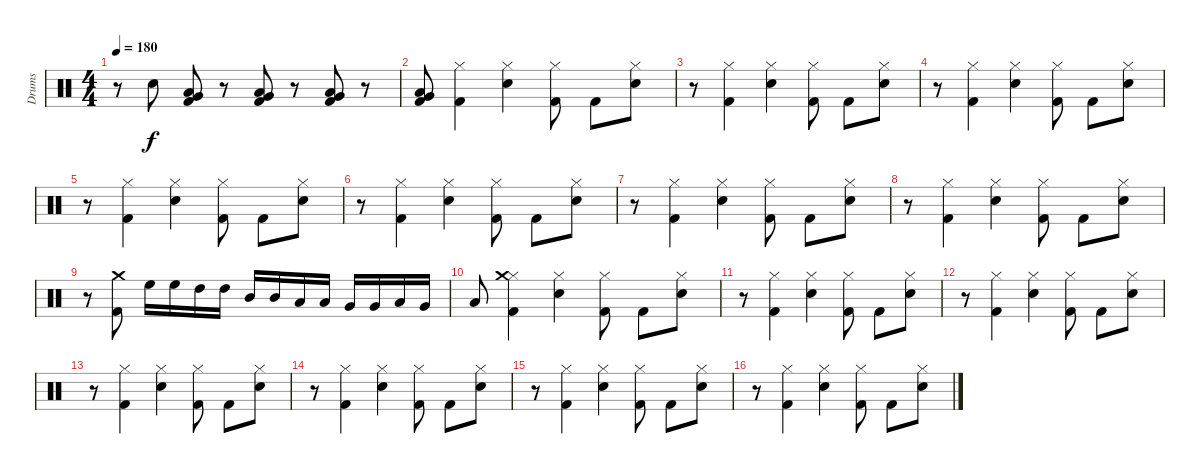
\track ("Drums" "Drums") {instrument percussion}
\staff {score}
\articulation defaults
\ts (4 4)
\tempo 180
\clef neutral
\ks c
r.8{dy f} "Snare (hit) 2".8 ("Very Low Tom (hit)" "Low Floor Tom (hit)" "Kick (hit) 2").8 r.8 ("Very Low Tom (hit)" "Low Floor Tom (hit)" "Kick (hit) 2").8 r.8 ("Very Low Tom (hit)" "Low Floor Tom (hit)" "Kick (hit) 2").8 r.8 |
("Very Low Tom (hit)" "Low Floor Tom (hit)" "Kick (hit) 2").8 ("Hi-Hat (closed)" "Kick (hit) 2").4 ("Hi-Hat (closed)" "Snare (hit) 2").4 ("Hi-Hat (closed)" "Kick (hit) 2").8 "Kick (hit) 2".8 ("Hi-Hat (closed)" "Snare (hit) 2").8 |
r.8 ("Hi-Hat (closed)" "Kick (hit) 2").4 ("Hi-Hat (closed)" "Snare (hit) 2").4 ("Hi-Hat (closed)" "Kick (hit) 2").8 "Kick (hit) 2".8 ("Hi-Hat (closed)" "Snare (hit) 2").8 |
r.8 ("Hi-Hat (closed)" "Kick (hit) 2").4 ("Hi-Hat (closed)" "Snare (hit) 2").4 ("Hi-Hat (closed)" "Kick (hit) 2").8 "Kick (hit) 2".8 ("Hi-Hat (closed)" "Snare (hit) 2").8 |
r.8 ("Hi-Hat (closed)" "Kick (hit) 2").4 ("Hi-Hat (closed)" "Snare (hit) 2").4 ("Hi-Hat (closed)" "Kick (hit) 2").8 "Kick (hit) 2".8 ("Hi-Hat (closed)" "Snare (hit) 2").8 |
r.8 ("Hi-Hat (closed)" "Kick (hit) 2").4 ("Hi-Hat (closed)" "Snare (hit) 2").4 ("Hi-Hat (closed)" "Kick (hit) 2").8 "Kick (hit) 2".8 ("Hi-Hat (closed)" "Snare (hit) 2").8 |
r.8 ("Hi-Hat (closed)" "Kick (hit) 2").4 ("Hi-Hat (closed)" "Snare (hit) 2").4 ("Hi-Hat (closed)" "Kick (hit) 2").8 "Kick (hit) 2".8 ("Hi-Hat (closed)" "Snare (hit) 2").8 |
r.8 ("Hi-Hat (closed)" "Kick (hit) 2").4 ("Hi-Hat (closed)" "Snare (hit) 2").4 ("Hi-Hat (closed)" "Kick (hit) 2").8 "Kick (hit) 2".8 ("Hi-Hat (closed)" "Snare (hit) 2").8 |
r.8 ("Crash medium (hit)" "Kick (hit) 2").8 "High Floor Tom (hit)".16 "High Floor Tom (hit)".16 "High Tom (hit)".16 "High Tom (hit)".16 "Mid Tom (hit)".16 "Mid Tom (hit)".16 "Low Tom (hit)".16 "Low Tom (hit)".16 "Very Low Tom (hit)".16 "Very Low Tom (hit)".16 "Low Floor Tom (hit)".16 "Very Low Tom (hit)".16 |
"Low Floor Tom (hit)".8 ("Hi-Hat (closed)" "Crash medium (hit)" "Kick (hit) 2").4 ("Hi-Hat (closed)" "Snare (hit) 2").4 ("Hi-Hat (closed)" "Kick (hit) 2").8 "Kick (hit) 2".8 ("Hi-Hat (closed)" "Snare (hit) 2").8 |
r.8 ("Hi-Hat (closed)" "Kick (hit) 2").4 ("Hi-Hat (closed)" "Snare (hit) 2").4 ("Hi-Hat (closed)" "Kick (hit) 2").8 "Kick (hit) 2".8 ("Hi-Hat (closed)" "Snare (hit) 2").8 |
r.8 ("Hi-Hat (closed)" "Kick (hit) 2").4 ("Hi-Hat (closed)" "Snare (hit) 2").4 ("Hi-Hat (closed)" "Kick (hit) 2").8 "Kick (hit) 2".8 ("Hi-Hat (closed)" "Snare (hit) 2").8 |
r.8 ("Hi-Hat (closed)" "Kick (hit) 2").4 ("Hi-Hat (closed)" "Snare (hit) 2").4 ("Hi-Hat (closed)" "Kick (hit) 2").8 "Kick (hit) 2".8 ("Hi-Hat (closed)" "Snare (hit) 2").8 |
r.8 ("Hi-Hat (closed)" "Kick (hit) 2").4 ("Hi-Hat (closed)" "Snare (hit) 2").4 ("Hi-Hat (closed)" "Kick (hit) 2").8 "Kick (hit) 2".8 ("Hi-Hat (closed)" "Snare (hit) 2").8 |
r.8 ("Hi-Hat (closed)" "Kick (hit) 2").4 ("Hi-Hat (closed)" "Snare (hit) 2").4 ("Hi-Hat (closed)" "Kick (hit) 2").8 "Kick (hit) 2".8 ("Hi-Hat (closed)" "Snare (hit) 2").8 |
r.8 ("Hi-Hat (closed)" "Kick (hit) 2").4 ("Hi-Hat (closed)" "Snare (hit) 2").4 ("Hi-Hat (closed)" "Kick (hit) 2").8 "Kick (hit) 2".8 ("Hi-Hat (closed)" "Snare (hit) 2").8
